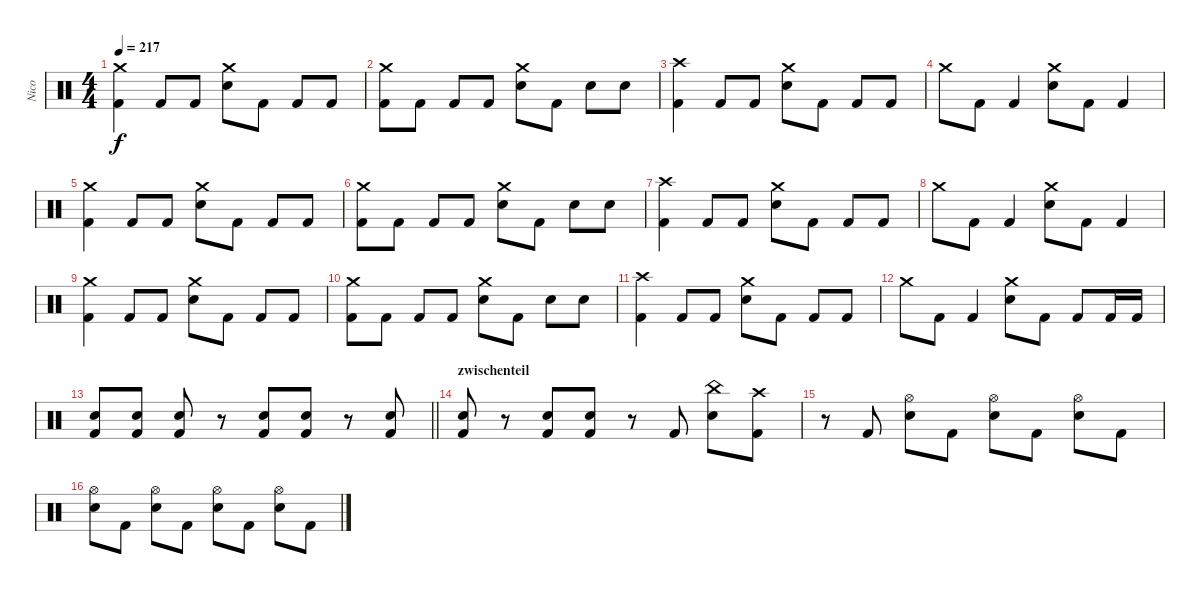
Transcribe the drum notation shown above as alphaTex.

\track ("Nico" "Nico") {instrument percussion}
\staff {score}
\articulation defaults
\ts (4 4)
\tempo 217
\clef neutral
\ks c
("Crash medium (hit)" "Kick (hit) 2").4{dy f} "Kick (hit) 2".8 "Kick (hit) 2".8 ("Crash medium (hit)" "Electric Snare (hit)").8 "Kick (hit) 2".8 "Kick (hit) 2".8 "Kick (hit) 2".8 |
("Crash medium (hit)" "Kick (hit) 2").8 "Kick (hit) 2".8 "Kick (hit) 2".8 "Kick (hit) 2".8 ("Crash medium (hit)" "Electric Snare (hit)").8 "Kick (hit) 2".8 "Electric Snare (hit)".8 "Electric Snare (hit)".8 |
("Crash high (hit)" "Kick (hit) 2").4 "Kick (hit) 2".8 "Kick (hit) 2".8 ("Crash medium (hit)" "Electric Snare (hit)").8 "Kick (hit) 2".8 "Kick (hit) 2".8 "Kick (hit) 2".8 |
"Crash medium (hit)".8 "Kick (hit) 2".8 "Kick (hit) 2".4 ("Crash medium (hit)" "Electric Snare (hit)").8 "Kick (hit) 2".8 "Kick (hit) 2".4 |
("Crash medium (hit)" "Kick (hit) 2").4 "Kick (hit) 2".8 "Kick (hit) 2".8 ("Crash medium (hit)" "Electric Snare (hit)").8 "Kick (hit) 2".8 "Kick (hit) 2".8 "Kick (hit) 2".8 |
("Crash medium (hit)" "Kick (hit) 2").8 "Kick (hit) 2".8 "Kick (hit) 2".8 "Kick (hit) 2".8 ("Crash medium (hit)" "Electric Snare (hit)").8 "Kick (hit) 2".8 "Electric Snare (hit)".8 "Electric Snare (hit)".8 |
("Crash high (hit)" "Kick (hit) 2").4 "Kick (hit) 2".8 "Kick (hit) 2".8 ("Crash medium (hit)" "Electric Snare (hit)").8 "Kick (hit) 2".8 "Kick (hit) 2".8 "Kick (hit) 2".8 |
"Crash medium (hit)".8 "Kick (hit) 2".8 "Kick (hit) 2".4 ("Crash medium (hit)" "Electric Snare (hit)").8 "Kick (hit) 2".8 "Kick (hit) 2".4 |
("Crash medium (hit)" "Kick (hit) 2").4 "Kick (hit) 2".8 "Kick (hit) 2".8 ("Crash medium (hit)" "Electric Snare (hit)").8 "Kick (hit) 2".8 "Kick (hit) 2".8 "Kick (hit) 2".8 |
("Crash medium (hit)" "Kick (hit) 2").8 "Kick (hit) 2".8 "Kick (hit) 2".8 "Kick (hit) 2".8 ("Crash medium (hit)" "Electric Snare (hit)").8 "Kick (hit) 2".8 "Electric Snare (hit)".8 "Electric Snare (hit)".8 |
("Crash high (hit)" "Kick (hit) 2").4 "Kick (hit) 2".8 "Kick (hit) 2".8 ("Crash medium (hit)" "Electric Snare (hit)").8 "Kick (hit) 2".8 "Kick (hit) 2".8 "Kick (hit) 2".8 |
"Crash medium (hit)".8 "Kick (hit) 2".8 "Kick (hit) 2".4 ("Crash medium (hit)" "Electric Snare (hit)").8 "Kick (hit) 2".8 "Kick (hit) 2".8 "Kick (hit) 2".16 "Kick (hit) 2".16 |
\barLineRight lightlight
("Electric Snare (hit)" "Kick (hit) 2").8 ("Electric Snare (hit)" "Kick (hit) 2").8 ("Electric Snare (hit)" "Kick (hit) 2").8 r.8 ("Electric Snare (hit)" "Kick (hit) 2").8 ("Electric Snare (hit)" "Kick (hit) 2").8 r.8 ("Electric Snare (hit)" "Kick (hit) 2").8 |
\section ("" "zwischenteil")
("Electric Snare (hit)" "Kick (hit) 2").8 r.8 ("Electric Snare (hit)" "Kick (hit) 2").8 ("Electric Snare (hit)" "Kick (hit) 2").8 r.8 "Kick (hit) 2".8 ("China (hit)" "Electric Snare (hit)").8 ("Crash high (hit)" "Kick (hit) 2").8 |
r.8 "Kick (hit) 2".8 ("Hi-Hat (open)" "Electric Snare (hit)").8 "Kick (hit) 2".8 ("Hi-Hat (open)" "Electric Snare (hit)").8 "Kick (hit) 2".8 ("Hi-Hat (open)" "Electric Snare (hit)").8 "Kick (hit) 2".8 |
("Hi-Hat (open)" "Electric Snare (hit)").8 "Kick (hit) 2".8 ("Hi-Hat (open)" "Electric Snare (hit)").8 "Kick (hit) 2".8 ("Hi-Hat (open)" "Electric Snare (hit)").8 "Kick (hit) 2".8 ("Hi-Hat (open)" "Electric Snare (hit)").8 "Kick (hit) 2".8
